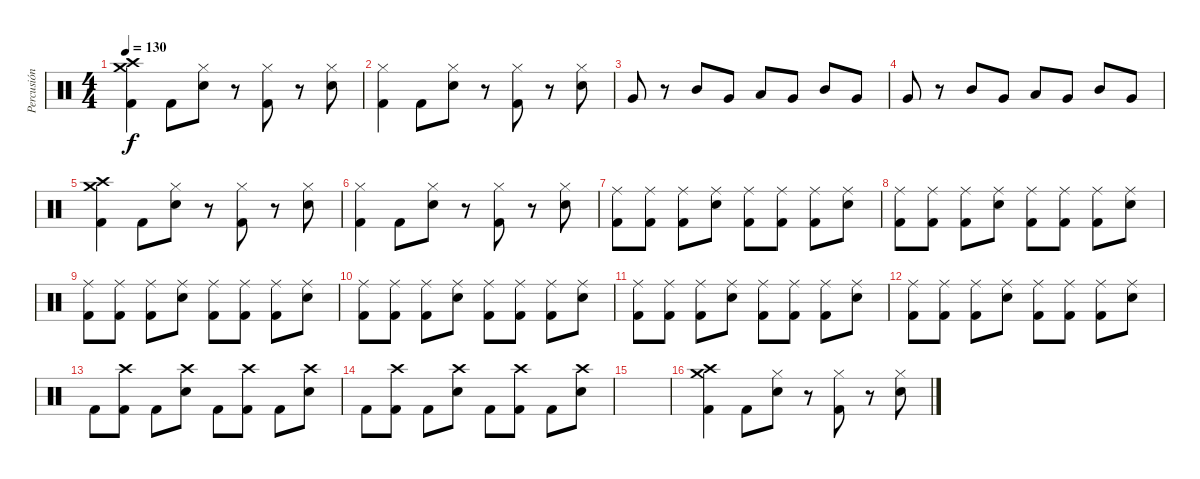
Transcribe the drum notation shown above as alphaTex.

\track ("Percusión" "Percusión") {instrument percussion}
\staff {score}
\articulation defaults
\ts (4 4)
\tempo 130
\clef neutral
\ks c
("Crash high (hit)" "Crash medium (hit)" "Kick (hit) 2").4{dy f} "Kick (hit) 2".8 ("Snare (hit) 2" "Hi-Hat (closed)").8 r.8 ("Kick (hit) 2" "Hi-Hat (closed)").8 r.8 ("Snare (hit) 2" "Hi-Hat (closed)").8 |
("Kick (hit) 2" "Hi-Hat (closed)").4 "Kick (hit) 2".8 ("Snare (hit) 2" "Hi-Hat (closed)").8 r.8 ("Kick (hit) 2" "Hi-Hat (closed)").8 r.8 ("Snare (hit) 2" "Hi-Hat (closed)").8 |
"Very Low Tom (hit)".8 r.8 "Mid Tom (hit)".8 "Very Low Tom (hit)".8 "Low Floor Tom (hit)".8 "Very Low Tom (hit)".8 "Mid Tom (hit)".8 "Very Low Tom (hit)".8 |
"Very Low Tom (hit)".8 r.8 "Mid Tom (hit)".8 "Very Low Tom (hit)".8 "Low Floor Tom (hit)".8 "Very Low Tom (hit)".8 "Mid Tom (hit)".8 "Very Low Tom (hit)".8 |
("Crash high (hit)" "Crash medium (hit)" "Kick (hit) 2").4 "Kick (hit) 2".8 ("Snare (hit) 2" "Hi-Hat (closed)").8 r.8 ("Kick (hit) 2" "Hi-Hat (closed)").8 r.8 ("Snare (hit) 2" "Hi-Hat (closed)").8 |
("Kick (hit) 2" "Hi-Hat (closed)").4 "Kick (hit) 2".8 ("Snare (hit) 2" "Hi-Hat (closed)").8 r.8 ("Kick (hit) 2" "Hi-Hat (closed)").8 r.8 ("Snare (hit) 2" "Hi-Hat (closed)").8 |
("Kick (hit) 2" "Ride (middle)").8 ("Kick (hit) 2" "Ride (middle)").8 ("Kick (hit) 2" "Ride (middle)").8 ("Snare (hit) 2" "Ride (middle)").8 ("Kick (hit) 2" "Ride (middle)").8 ("Kick (hit) 2" "Ride (middle)").8 ("Kick (hit) 2" "Ride (middle)").8 ("Snare (hit) 2" "Ride (middle)").8 |
("Kick (hit) 2" "Ride (middle)").8 ("Kick (hit) 2" "Ride (middle)").8 ("Kick (hit) 2" "Ride (middle)").8 ("Snare (hit) 2" "Ride (middle)").8 ("Kick (hit) 2" "Ride (middle)").8 ("Kick (hit) 2" "Ride (middle)").8 ("Kick (hit) 2" "Ride (middle)").8 ("Snare (hit) 2" "Ride (middle)").8 |
("Kick (hit) 2" "Ride (middle)").8 ("Kick (hit) 2" "Ride (middle)").8 ("Kick (hit) 2" "Ride (middle)").8 ("Snare (hit) 2" "Ride (middle)").8 ("Kick (hit) 2" "Ride (middle)").8 ("Kick (hit) 2" "Ride (middle)").8 ("Kick (hit) 2" "Ride (middle)").8 ("Snare (hit) 2" "Ride (middle)").8 |
("Kick (hit) 2" "Ride (middle)").8 ("Kick (hit) 2" "Ride (middle)").8 ("Kick (hit) 2" "Ride (middle)").8 ("Snare (hit) 2" "Ride (middle)").8 ("Kick (hit) 2" "Ride (middle)").8 ("Kick (hit) 2" "Ride (middle)").8 ("Kick (hit) 2" "Ride (middle)").8 ("Snare (hit) 2" "Ride (middle)").8 |
("Kick (hit) 2" "Ride (middle)").8 ("Kick (hit) 2" "Ride (middle)").8 ("Kick (hit) 2" "Ride (middle)").8 ("Snare (hit) 2" "Ride (middle)").8 ("Kick (hit) 2" "Ride (middle)").8 ("Kick (hit) 2" "Ride (middle)").8 ("Kick (hit) 2" "Ride (middle)").8 ("Snare (hit) 2" "Ride (middle)").8 |
("Kick (hit) 2" "Ride (middle)").8 ("Kick (hit) 2" "Ride (middle)").8 ("Kick (hit) 2" "Ride (middle)").8 ("Snare (hit) 2" "Ride (middle)").8 ("Kick (hit) 2" "Ride (middle)").8 ("Kick (hit) 2" "Ride (middle)").8 ("Kick (hit) 2" "Ride (middle)").8 ("Snare (hit) 2" "Ride (middle)").8 |
"Kick (hit) 2".8 ("Kick (hit) 2" "Crash high (hit)").8 "Kick (hit) 2".8 ("Snare (hit) 2" "Crash high (hit)").8 "Kick (hit) 2".8 ("Kick (hit) 2" "Crash high (hit)").8 "Kick (hit) 2".8 ("Snare (hit) 2" "Crash high (hit)").8 |
"Kick (hit) 2".8 ("Kick (hit) 2" "Crash high (hit)").8 "Kick (hit) 2".8 ("Snare (hit) 2" "Crash high (hit)").8 "Kick (hit) 2".8 ("Kick (hit) 2" "Crash high (hit)").8 "Kick (hit) 2".8 ("Snare (hit) 2" "Crash high (hit)").8 |
|
("Crash high (hit)" "Crash medium (hit)" "Kick (hit) 2").4 "Kick (hit) 2".8 ("Snare (hit) 2" "Hi-Hat (closed)").8 r.8 ("Kick (hit) 2" "Hi-Hat (closed)").8 r.8 ("Snare (hit) 2" "Hi-Hat (closed)").8
